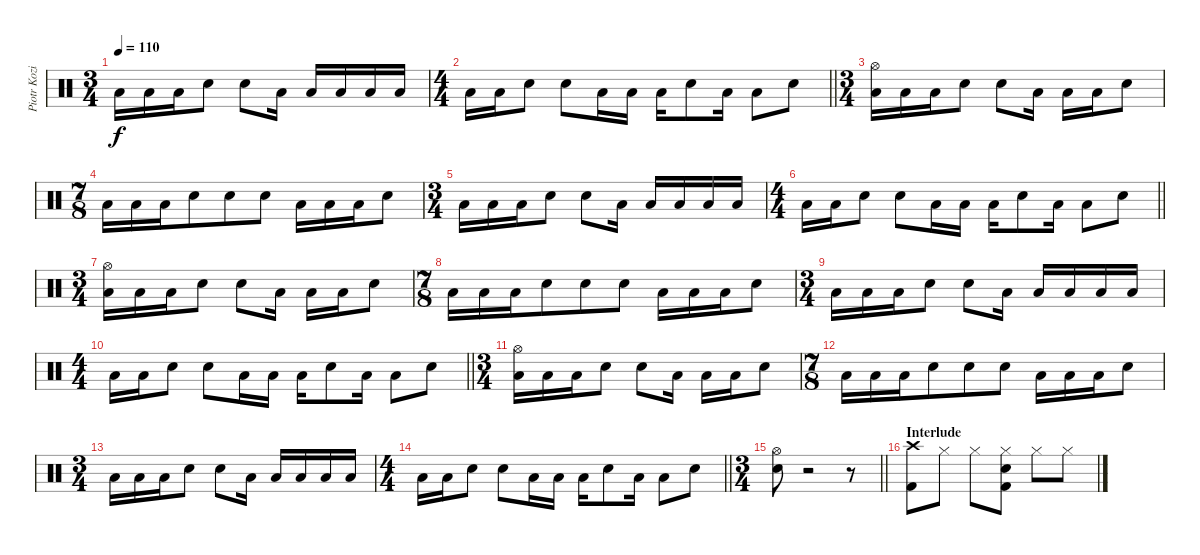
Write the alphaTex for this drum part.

\track ("Piotr Kozieradzki" "Piotr Kozi") {instrument percussion}
\staff {score}
\articulation defaults
\ts (3 4)
\tempo 110
\clef neutral
\ks c "Low Tom (hit)".16{dy f} "Low Tom (hit)".16 "Low Tom (hit)".16 "Electric Snare (hit)".8 "Electric Snare (hit)".8 "Low Tom (hit)".16 "Low Tom (hit)".16 "Low Tom (hit)".16 "Low Tom (hit)".16 "Low Tom (hit)".16
|
\ts (4 4)
\barLineRight lightlight "Low Tom (hit)".16 "Low Tom (hit)".16 "Electric Snare (hit)".8 "Electric Snare (hit)".8 "Low Tom (hit)".16 "Low Tom (hit)".16 "Low Tom (hit)".16 "Electric Snare (hit)".8 "Low Tom (hit)".16 "Low Tom (hit)".8 "Electric Snare (hit)".8
|
\ts (3 4)
("Hi-Hat (open)" "Low Tom (hit)").16 "Low Tom (hit)".16 "Low Tom (hit)".16 "Electric Snare (hit)".8 "Electric Snare (hit)".8 "Low Tom (hit)".16 "Low Tom (hit)".16 "Low Tom (hit)".16 "Electric Snare (hit)".8 |
\ts (7 8)
"Low Tom (hit)".16 "Low Tom (hit)".16 "Low Tom (hit)".16 "Electric Snare (hit)".8 "Electric Snare (hit)".8 "Electric Snare (hit)".8 "Low Tom (hit)".16 "Low Tom (hit)".16 "Low Tom (hit)".16 "Electric Snare (hit)".8 |
\ts (3 4)
"Low Tom (hit)".16 "Low Tom (hit)".16 "Low Tom (hit)".16 "Electric Snare (hit)".8 "Electric Snare (hit)".8 "Low Tom (hit)".16 "Low Tom (hit)".16 "Low Tom (hit)".16 "Low Tom (hit)".16 "Low Tom (hit)".16 |
\ts (4 4)
\barLineRight lightlight "Low Tom (hit)".16 "Low Tom (hit)".16 "Electric Snare (hit)".8 "Electric Snare (hit)".8 "Low Tom (hit)".16 "Low Tom (hit)".16 "Low Tom (hit)".16 "Electric Snare (hit)".8 "Low Tom (hit)".16 "Low Tom (hit)".8 "Electric Snare (hit)".8
|
\ts (3 4)
("Hi-Hat (open)" "Low Tom (hit)").16 "Low Tom (hit)".16 "Low Tom (hit)".16 "Electric Snare (hit)".8 "Electric Snare (hit)".8 "Low Tom (hit)".16 "Low Tom (hit)".16 "Low Tom (hit)".16 "Electric Snare (hit)".8 |
\ts (7 8)
"Low Tom (hit)".16 "Low Tom (hit)".16 "Low Tom (hit)".16 "Electric Snare (hit)".8 "Electric Snare (hit)".8 "Electric Snare (hit)".8 "Low Tom (hit)".16 "Low Tom (hit)".16 "Low Tom (hit)".16 "Electric Snare (hit)".8 |
\ts (3 4)
"Low Tom (hit)".16 "Low Tom (hit)".16 "Low Tom (hit)".16 "Electric Snare (hit)".8 "Electric Snare (hit)".8 "Low Tom (hit)".16 "Low Tom (hit)".16 "Low Tom (hit)".16 "Low Tom (hit)".16 "Low Tom (hit)".16 |
\ts (4 4)
\barLineRight lightlight "Low Tom (hit)".16 "Low Tom (hit)".16 "Electric Snare (hit)".8 "Electric Snare (hit)".8 "Low Tom (hit)".16 "Low Tom (hit)".16 "Low Tom (hit)".16 "Electric Snare (hit)".8 "Low Tom (hit)".16 "Low Tom (hit)".8 "Electric Snare (hit)".8
|
\ts (3 4)
("Hi-Hat (open)" "Low Tom (hit)").16 "Low Tom (hit)".16 "Low Tom (hit)".16 "Electric Snare (hit)".8 "Electric Snare (hit)".8 "Low Tom (hit)".16 "Low Tom (hit)".16 "Low Tom (hit)".16 "Electric Snare (hit)".8 |
\ts (7 8)
"Low Tom (hit)".16 "Low Tom (hit)".16 "Low Tom (hit)".16 "Electric Snare (hit)".8 "Electric Snare (hit)".8 "Electric Snare (hit)".8 "Low Tom (hit)".16 "Low Tom (hit)".16 "Low Tom (hit)".16 "Electric Snare (hit)".8 |
\ts (3 4)
"Low Tom (hit)".16 "Low Tom (hit)".16 "Low Tom (hit)".16 "Electric Snare (hit)".8 "Electric Snare (hit)".8 "Low Tom (hit)".16 "Low Tom (hit)".16 "Low Tom (hit)".16 "Low Tom (hit)".16 "Low Tom (hit)".16 |
\ts (4 4)
\barLineRight lightlight "Low Tom (hit)".16 "Low Tom (hit)".16 "Electric Snare (hit)".8 "Electric Snare (hit)".8 "Low Tom (hit)".16 "Low Tom (hit)".16 "Low Tom (hit)".16 "Electric Snare (hit)".8 "Low Tom (hit)".16 "Low Tom (hit)".8 "Electric Snare (hit)".8
|
\ts (3 4)
\barLineRight lightlight
("Hi-Hat (open)" "Electric Snare (hit)").8 r.2 r.8 |
\section ("" "Interlude")
("Crash high (hit)" "Kick (hit) 2").8 "Hi-Hat (closed)".8 "Hi-Hat (closed)".8 ("Hi-Hat (closed)" "Electric Snare (hit)" "Kick (hit) 2").8 "Hi-Hat (closed)".8 "Hi-Hat (closed)".8
